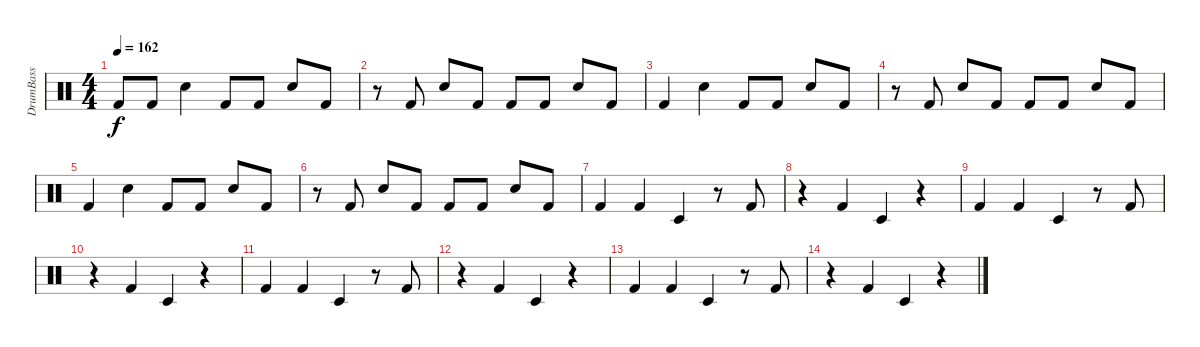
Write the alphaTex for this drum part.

\track ("DrumBass" "DrumBass") {instrument percussion}
\staff {score}
\articulation defaults
\ts (4 4)
\tempo 162
\clef neutral
\ks c "Kick (hit) 2".8{dy f} "Kick (hit) 2".8 "Snare (hit) 2".4 "Kick (hit) 2".8 "Kick (hit) 2".8 "Snare (hit) 2".8 "Kick (hit) 2".8
|
r.8 "Kick (hit) 2".8 "Snare (hit) 2".8 "Kick (hit) 2".8 "Kick (hit) 2".8 "Kick (hit) 2".8 "Snare (hit) 2".8 "Kick (hit) 2".8 |
"Kick (hit) 2".4 "Snare (hit) 2".4 "Kick (hit) 2".8 "Kick (hit) 2".8 "Snare (hit) 2".8 "Kick (hit) 2".8 |
r.8 "Kick (hit) 2".8 "Snare (hit) 2".8 "Kick (hit) 2".8 "Kick (hit) 2".8 "Kick (hit) 2".8 "Snare (hit) 2".8 "Kick (hit) 2".8 |
"Kick (hit) 2".4 "Snare (hit) 2".4 "Kick (hit) 2".8 "Kick (hit) 2".8 "Snare (hit) 2".8 "Kick (hit) 2".8 |
r.8 "Kick (hit) 2".8 "Snare (hit) 2".8 "Kick (hit) 2".8 "Kick (hit) 2".8 "Kick (hit) 2".8 "Snare (hit) 2".8 "Kick (hit) 2".8 |
"Kick (hit) 2".4 "Kick (hit) 2".4 "Timbale low (hit)".4 r.8 "Kick (hit) 2".8 |
r.4 "Kick (hit) 2".4 "Timbale low (hit)".4 r.4 |
"Kick (hit) 2".4 "Kick (hit) 2".4 "Timbale low (hit)".4 r.8 "Kick (hit) 2".8 |
r.4 "Kick (hit) 2".4 "Timbale low (hit)".4 r.4 |
"Kick (hit) 2".4 "Kick (hit) 2".4 "Timbale low (hit)".4 r.8 "Kick (hit) 2".8 |
r.4 "Kick (hit) 2".4 "Timbale low (hit)".4 r.4 |
"Kick (hit) 2".4 "Kick (hit) 2".4 "Timbale low (hit)".4 r.8 "Kick (hit) 2".8 |
r.4 "Kick (hit) 2".4 "Timbale low (hit)".4 r.4
